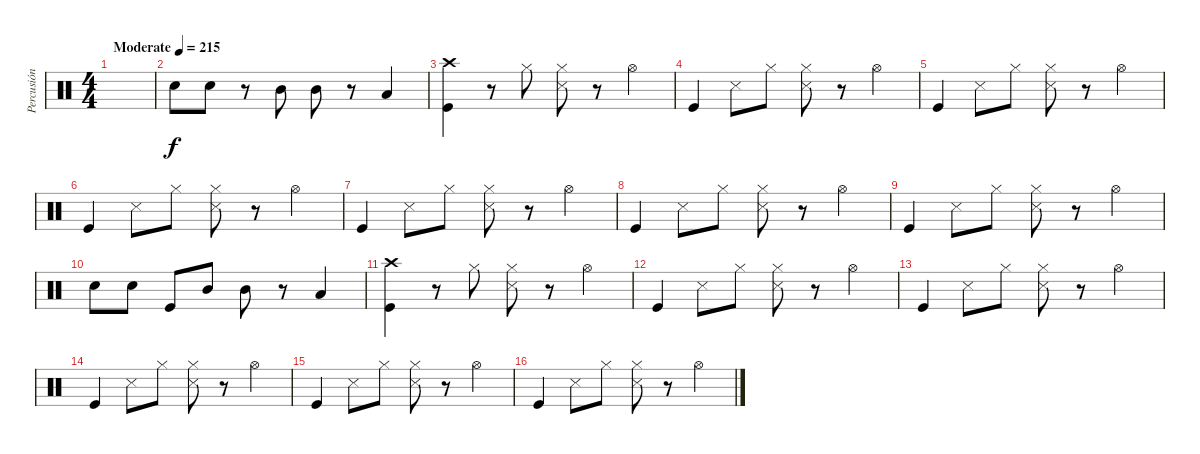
\track ("Percusión" "Percusión") {instrument percussion}
\staff {score}
\articulation defaults
\ts (4 4)
\tempo (215 "Moderate")
\clef neutral
\ks c
|
"Snare (hit) 2".8 "Snare (hit) 2".8 r.8 "Mid Tom (hit)".8 "Mid Tom (hit)".8 r.8 "Low Tom (hit)".4 |
("Crash high (hit)" "Kick (hit)").4 r.8 "Hi-Hat (closed)".8 ("Hi-Hat (closed)" "Snare (side stick) 3").8 r.8 "Hi-Hat (open)".4 |
"Kick (hit)".4 "Snare (side stick) 3".8 "Hi-Hat (closed)".8 ("Hi-Hat (closed)" "Snare (side stick) 3").8 r.8 "Hi-Hat (open)".4 |
"Kick (hit)".4 "Snare (side stick) 3".8 "Hi-Hat (closed)".8 ("Hi-Hat (closed)" "Snare (side stick) 3").8 r.8 "Hi-Hat (open)".4 |
"Kick (hit)".4 "Snare (side stick) 3".8 "Hi-Hat (closed)".8 ("Hi-Hat (closed)" "Snare (side stick) 3").8 r.8 "Hi-Hat (open)".4 |
"Kick (hit)".4 "Snare (side stick) 3".8 "Hi-Hat (closed)".8 ("Hi-Hat (closed)" "Snare (side stick) 3").8 r.8 "Hi-Hat (open)".4 |
"Kick (hit)".4 "Snare (side stick) 3".8 "Hi-Hat (closed)".8 ("Hi-Hat (closed)" "Snare (side stick) 3").8 r.8 "Hi-Hat (open)".4 |
"Kick (hit)".4 "Snare (side stick) 3".8 "Hi-Hat (closed)".8 ("Hi-Hat (closed)" "Snare (side stick) 3").8 r.8 "Hi-Hat (open)".4 |
"Snare (hit) 2".8 "Snare (hit) 2".8 "Kick (hit)".8 "Mid Tom (hit)".8 "Mid Tom (hit)".8 r.8 "Low Tom (hit)".4 |
("Crash high (hit)" "Kick (hit)").4 r.8 "Hi-Hat (closed)".8 ("Hi-Hat (closed)" "Snare (side stick) 3").8 r.8 "Hi-Hat (open)".4 |
"Kick (hit)".4 "Snare (side stick) 3".8 "Hi-Hat (closed)".8 ("Hi-Hat (closed)" "Snare (side stick) 3").8 r.8 "Hi-Hat (open)".4 |
"Kick (hit)".4 "Snare (side stick) 3".8 "Hi-Hat (closed)".8 ("Hi-Hat (closed)" "Snare (side stick) 3").8 r.8 "Hi-Hat (open)".4 |
"Kick (hit)".4 "Snare (side stick) 3".8 "Hi-Hat (closed)".8 ("Hi-Hat (closed)" "Snare (side stick) 3").8 r.8 "Hi-Hat (open)".4 |
"Kick (hit)".4 "Snare (side stick) 3".8 "Hi-Hat (closed)".8 ("Hi-Hat (closed)" "Snare (side stick) 3").8 r.8 "Hi-Hat (open)".4 |
"Kick (hit)".4 "Snare (side stick) 3".8 "Hi-Hat (closed)".8 ("Hi-Hat (closed)" "Snare (side stick) 3").8 r.8 "Hi-Hat (open)".4
